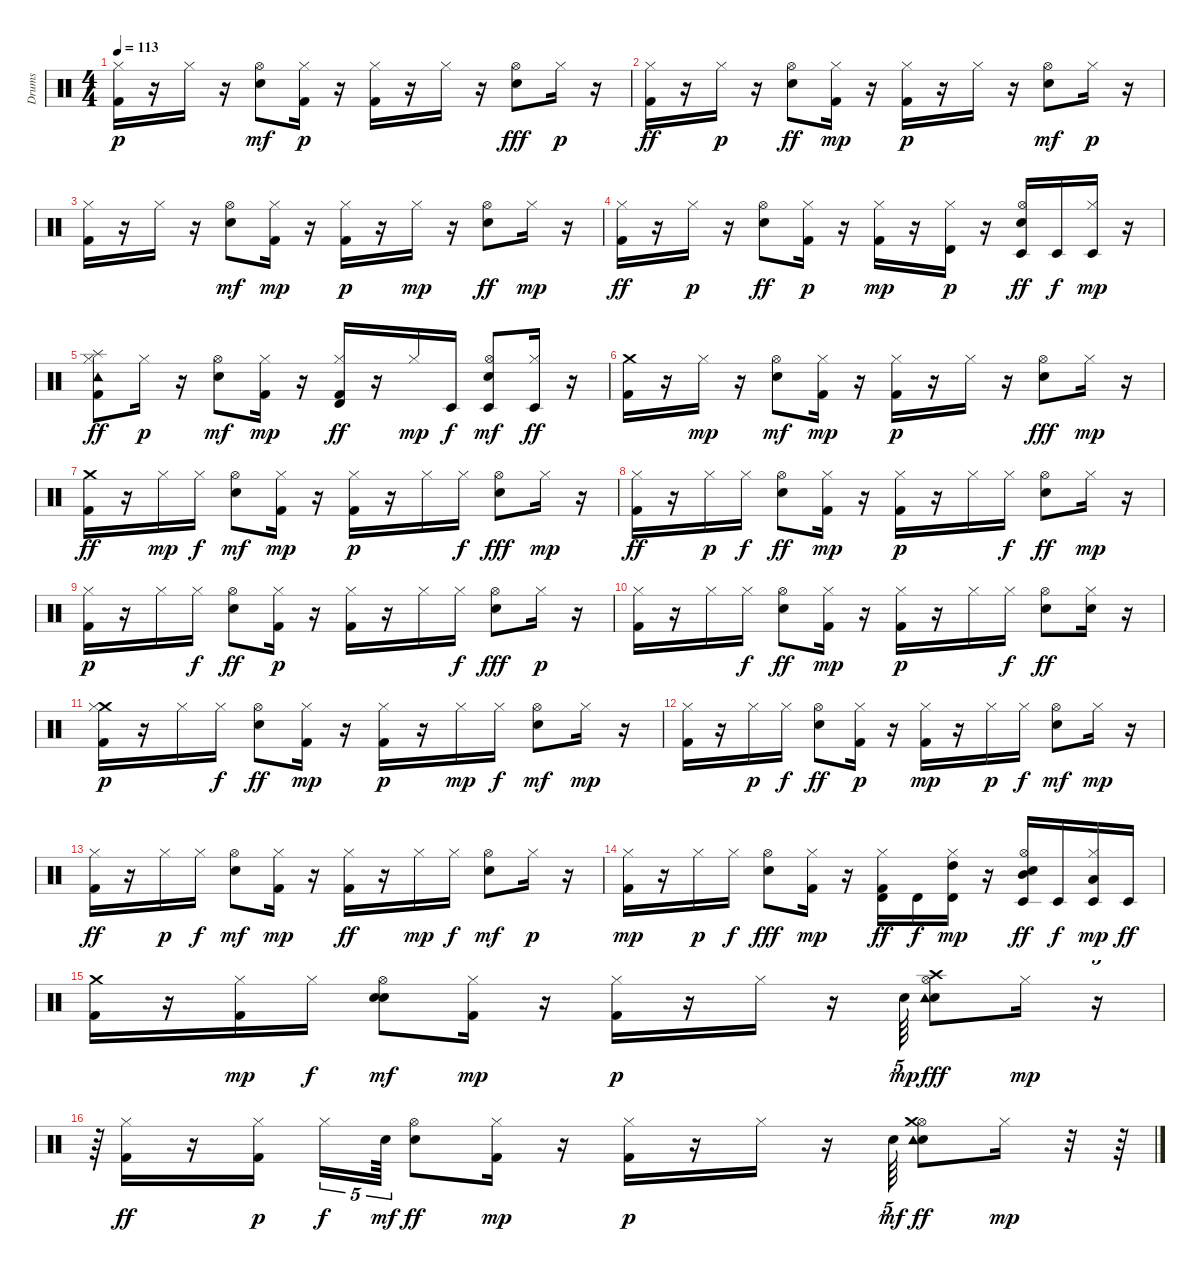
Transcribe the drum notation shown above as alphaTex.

\track ("Drums" "Drums") {instrument percussion}
\staff {score}
\articulation defaults
\ts (4 4)
\tempo 113
\clef neutral
\ks c
("Kick (hit) 2" "Hi-Hat (closed)").16{dy p} r.16 "Hi-Hat (closed)".16 r.16 ("Electric Snare (hit)" "Hi-Hat (open)").8{dy mf} ("Kick (hit) 2" "Hi-Hat (closed)").16{dy p} r.16 ("Hi-Hat (closed)" "Kick (hit) 2").16 r.16 "Hi-Hat (closed)".16 r.16 ("Hi-Hat (open)" "Electric Snare (hit)").8{dy fff} "Hi-Hat (closed)".16{dy p} r.16 |
("Hi-Hat (closed)" "Kick (hit) 2").16{dy ff} r.16 "Hi-Hat (closed)".16{dy p} r.16 ("Hi-Hat (open)" "Electric Snare (hit)").8{dy ff} ("Kick (hit) 2" "Hi-Hat (closed)").16{dy mp} r.16 ("Hi-Hat (closed)" "Kick (hit) 2").16{dy p} r.16 "Hi-Hat (closed)".16 r.16 ("Electric Snare (hit)" "Hi-Hat (open)").8{dy mf} "Hi-Hat (closed)".16{dy p} r.16 |
("Kick (hit) 2" "Hi-Hat (closed)").16 r.16 "Hi-Hat (closed)".16 r.16 ("Electric Snare (hit)" "Hi-Hat (open)").8{dy mf} ("Hi-Hat (closed)" "Kick (hit) 2").16{dy mp} r.16 ("Kick (hit) 2" "Hi-Hat (closed)").16{dy p} r.16 "Hi-Hat (closed)".16{dy mp} r.16 ("Hi-Hat (open)" "Electric Snare (hit)").8{dy ff} "Hi-Hat (closed)".16{dy mp} r.16 |
("Hi-Hat (closed)" "Kick (hit) 2").16{dy ff} r.16 "Hi-Hat (closed)".16{dy p} r.16 ("Hi-Hat (open)" "Electric Snare (hit)").8{dy ff} ("Kick (hit) 2" "Hi-Hat (closed)").16{dy p} r.16 ("Kick (hit) 2" "Hi-Hat (closed)").16{dy mp} r.16 ("Hi-Hat (closed)" "Timbale high (hit)").16{dy p} r.16 ("Hi-Hat (open)" "Electric Snare (hit)" "Timbale low (hit)").16{dy ff} "Timbale low (hit)".16{dy f} ("Timbale low (hit)" "Hi-Hat (closed)").16{dy mp} r.16 |
("Splash (hit)" "Hi-Hat (closed)" "Kick (hit) 2" "Tambourine (hit)").8{dy ff} "Hi-Hat (closed)".16{dy p} r.16 ("Electric Snare (hit)" "Hi-Hat (open)").8{dy mf} ("Kick (hit) 2" "Hi-Hat (closed)").16{dy mp} r.16 ("Timbale high (hit)" "Hi-Hat (closed)" "Kick (hit) 2").16{dy ff} r.16 "Hi-Hat (closed)".16{dy mp} "Timbale low (hit)".16{dy f} ("Timbale low (hit)" "Electric Snare (hit)" "Hi-Hat (open)").8{dy mf} ("Hi-Hat (closed)" "Timbale low (hit)").16{dy ff} r.16 |
("Crash medium (hit)" "Kick (hit) 2").16 r.16 "Hi-Hat (closed)".16{dy mp} r.16 ("Electric Snare (hit)" "Hi-Hat (open)").8{dy mf} ("Kick (hit) 2" "Hi-Hat (closed)").16{dy mp} r.16 ("Hi-Hat (closed)" "Kick (hit) 2").16{dy p} r.16 "Hi-Hat (closed)".16 r.16 ("Electric Snare (hit)" "Hi-Hat (open)").8{dy fff} "Hi-Hat (closed)".16{dy mp} r.16 |
("Crash medium (hit)" "Kick (hit) 2").16{dy ff} r.16 "Hi-Hat (closed)".16{dy mp} "Hi-Hat (closed)".16{dy f} ("Electric Snare (hit)" "Hi-Hat (open)").8{dy mf} ("Hi-Hat (closed)" "Kick (hit) 2").16{dy mp} r.16 ("Kick (hit) 2" "Hi-Hat (closed)").16{dy p} r.16 "Hi-Hat (closed)".16 "Hi-Hat (closed)".16{dy f} ("Hi-Hat (open)" "Electric Snare (hit)").8{dy fff} "Hi-Hat (closed)".16{dy mp} r.16 |
("Hi-Hat (closed)" "Kick (hit) 2").16{dy ff} r.16 "Hi-Hat (closed)".16{dy p} "Hi-Hat (closed)".16{dy f} ("Electric Snare (hit)" "Hi-Hat (open)").8{dy ff} ("Kick (hit) 2" "Hi-Hat (closed)").16{dy mp} r.16 ("Kick (hit) 2" "Hi-Hat (closed)").16{dy p} r.16 "Hi-Hat (closed)".16 "Hi-Hat (closed)".16{dy f} ("Hi-Hat (open)" "Electric Snare (hit)").8{dy ff} "Hi-Hat (closed)".16{dy mp} r.16 |
("Kick (hit) 2" "Hi-Hat (closed)").16{dy p} r.16 "Hi-Hat (closed)".16 "Hi-Hat (closed)".16{dy f} ("Hi-Hat (open)" "Electric Snare (hit)").8{dy ff} ("Kick (hit) 2" "Hi-Hat (closed)").16{dy p} r.16 ("Kick (hit) 2" "Hi-Hat (closed)").16 r.16 "Hi-Hat (closed)".16 "Hi-Hat (closed)".16{dy f} ("Hi-Hat (open)" "Electric Snare (hit)").8{dy fff} "Hi-Hat (closed)".16{dy p} r.16 |
("Kick (hit) 2" "Hi-Hat (closed)").16 r.16 "Hi-Hat (closed)".16 "Hi-Hat (closed)".16{dy f} ("Hi-Hat (open)" "Electric Snare (hit)").8{dy ff} ("Hi-Hat (closed)" "Kick (hit) 2").16{dy mp} r.16 ("Kick (hit) 2" "Hi-Hat (closed)").16{dy p} r.16 "Hi-Hat (closed)".16 "Hi-Hat (closed)".16{dy f} ("Hi-Hat (open)" "Electric Snare (hit)").8{dy ff} ("Hi-Hat (closed)" "Electric Snare (hit)").16 r.16 |
("Kick (hit) 2" "Crash medium (hit)" "Hi-Hat (closed)").16{dy p} r.16 "Hi-Hat (closed)".16 "Hi-Hat (closed)".16{dy f} ("Hi-Hat (open)" "Electric Snare (hit)").8{dy ff} ("Kick (hit) 2" "Hi-Hat (closed)").16{dy mp} r.16 ("Hi-Hat (closed)" "Kick (hit) 2").16{dy p} r.16 "Hi-Hat (closed)".16{dy mp} "Hi-Hat (closed)".16{dy f} ("Electric Snare (hit)" "Hi-Hat (open)").8{dy mf} "Hi-Hat (closed)".16{dy mp} r.16 |
("Kick (hit) 2" "Hi-Hat (closed)").16 r.16 "Hi-Hat (closed)".16{dy p} "Hi-Hat (closed)".16{dy f} ("Hi-Hat (open)" "Electric Snare (hit)").8{dy ff} ("Kick (hit) 2" "Hi-Hat (closed)").16{dy p} r.16 ("Hi-Hat (closed)" "Kick (hit) 2").16{dy mp} r.16 "Hi-Hat (closed)".16{dy p} "Hi-Hat (closed)".16{dy f} ("Electric Snare (hit)" "Hi-Hat (open)").8{dy mf} "Hi-Hat (closed)".16{dy mp} r.16 |
("Hi-Hat (closed)" "Kick (hit) 2").16{dy ff} r.16 "Hi-Hat (closed)".16{dy p} "Hi-Hat (closed)".16{dy f} ("Electric Snare (hit)" "Hi-Hat (open)").8{dy mf} ("Hi-Hat (closed)" "Kick (hit) 2").16{dy mp} r.16 ("Hi-Hat (closed)" "Kick (hit) 2").16{dy ff} r.16 "Hi-Hat (closed)".16{dy mp} "Hi-Hat (closed)".16{dy f} ("Electric Snare (hit)" "Hi-Hat (open)").8{dy mf} "Hi-Hat (closed)".16{dy p} r.16 |
("Kick (hit) 2" "Hi-Hat (closed)").16{dy mp} r.16 "Hi-Hat (closed)".16{dy p} "Hi-Hat (closed)".16{dy f} ("Hi-Hat (open)" "Electric Snare (hit)").8{dy fff} ("Kick (hit) 2" "Hi-Hat (closed)").16{dy mp} r.16 ("Hi-Hat (closed)" "Kick (hit) 2" "Timbale high (hit)").16{dy ff} "Timbale high (hit)".16{dy f} ("Hi-Hat (closed)" "Timbale high (hit)" "High Tom (hit)").16{dy mp} r.16 ("Mid Tom (hit)" "Electric Snare (hit)" "Timbale low (hit)" "Hi-Hat (open)").16{dy ff} "Timbale low (hit)".16{dy f} ("Timbale low (hit)" "Low Tom (hit)" "Hi-Hat (closed)").16{dy mp} "Timbale low (hit)".16{dy ff} |
("Kick (hit) 2" "Crash medium (hit)").16 r.16 ("Kick (hit) 2" "Hi-Hat (closed)").16{dy mp} "Hi-Hat (closed)".16{dy f} ("Snare (hit) 2" "Electric Snare (hit)" "Hi-Hat (open)").8{dy mf} ("Hi-Hat (closed)" "Kick (hit) 2").16{dy mp} r.16 ("Kick (hit) 2" "Hi-Hat (closed)").16{dy p} r.16 "Hi-Hat (closed)".16 r.16 "Snare (hit) 2".64{tu (5 4) dy mp} ("Electric Snare (hit)" "Crash high (hit)" "Tambourine (hit)" "Hi-Hat (open)").8{dy fff} "Hi-Hat (closed)".16{dy mp} r.16{tu (5 4)} |
r.64{tu (5 4)} ("Hi-Hat (closed)" "Kick (hit) 2").16{dy ff} r.16 ("Kick (hit) 2" "Hi-Hat (closed)").16{dy p} "Hi-Hat (closed)".16{tu (5 4) dy f} "Snare (hit) 2".64{tu (5 4) dy mf} ("Electric Snare (hit)" "Hi-Hat (open)").8{dy ff} ("Hi-Hat (closed)" "Kick (hit) 2").16{dy mp} r.16 ("Kick (hit) 2" "Hi-Hat (closed)").16{dy p} r.16 "Hi-Hat (closed)".16 r.16 "Snare (hit) 2".64{tu (5 4) dy mf} ("Electric Snare (hit)" "Hi-Hat (open)" "Tambourine (hit)" "Crash medium (hit)").8{dy ff} "Hi-Hat (closed)".16{dy mp} r.32 r.64
